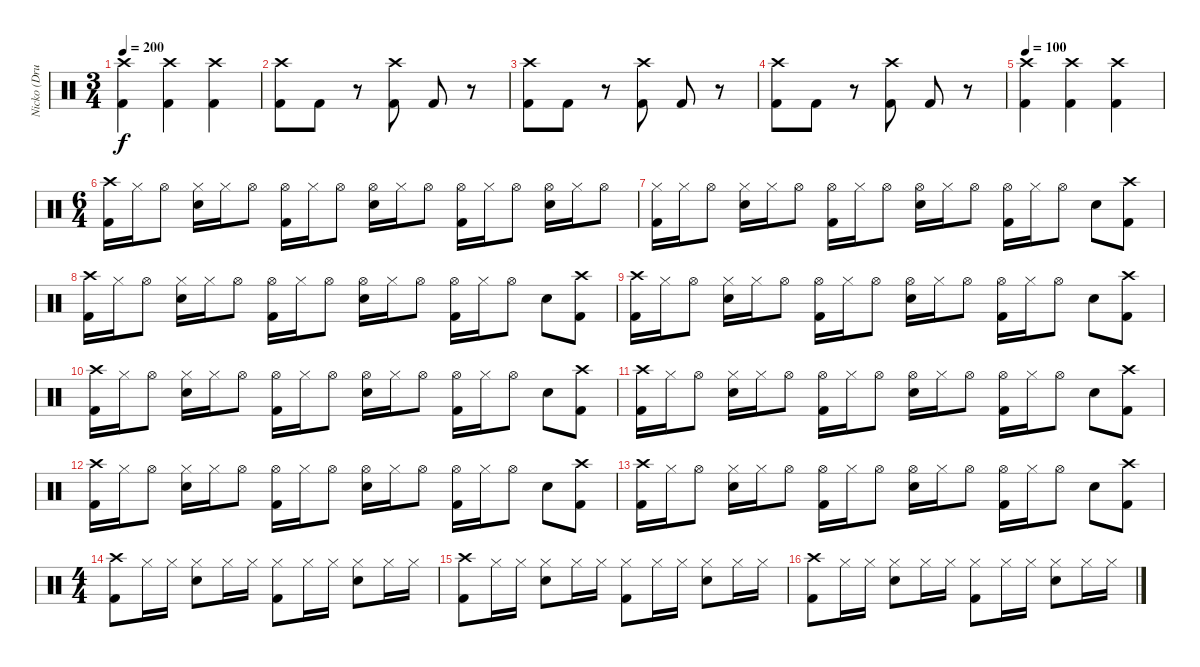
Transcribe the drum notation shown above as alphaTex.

\track ("Nicko (Drums)" "Nicko (Dru") {instrument percussion}
\staff {score}
\articulation defaults
\ts (3 4)
\tempo 200
\clef neutral
\ks c
("Crash high (hit)" "Kick (hit) 2").4{dy f} ("Crash high (hit)" "Kick (hit) 2").4 ("Crash high (hit)" "Kick (hit) 2").4 |
("Crash high (hit)" "Kick (hit) 2").8 "Kick (hit) 2".8 r.8 ("Crash high (hit)" "Kick (hit) 2").8 "Kick (hit) 2".8 r.8 |
("Crash high (hit)" "Kick (hit) 2").8 "Kick (hit) 2".8 r.8 ("Crash high (hit)" "Kick (hit) 2").8 "Kick (hit) 2".8 r.8 |
("Crash high (hit)" "Kick (hit) 2").8 "Kick (hit) 2".8 r.8 ("Crash high (hit)" "Kick (hit) 2").8 "Kick (hit) 2".8 r.8 |
\tempo 100
("Crash high (hit)" "Kick (hit) 2").4 ("Crash high (hit)" "Kick (hit) 2").4 ("Crash high (hit)" "Kick (hit) 2").4 |
\ts (6 4)
("Crash high (hit)" "Kick (hit) 2").16 "Hi-Hat (closed)".16 "Hi-Hat (open)".8 ("Hi-Hat (closed)" "Snare (hit) 2").16 "Hi-Hat (closed)".16 "Hi-Hat (open)".8 ("Hi-Hat (open)" "Kick (hit) 2").16 "Hi-Hat (closed)".16 "Hi-Hat (open)".8 ("Hi-Hat (open)" "Snare (hit) 2").16 "Hi-Hat (closed)".16 "Hi-Hat (open)".8 ("Hi-Hat (open)" "Kick (hit) 2").16 "Hi-Hat (closed)".16 "Hi-Hat (open)".8 ("Hi-Hat (open)" "Snare (hit) 2").16 "Hi-Hat (closed)".16 "Hi-Hat (open)".8 |
("Hi-Hat (closed)" "Kick (hit) 2").16 "Hi-Hat (closed)".16 "Hi-Hat (open)".8 ("Hi-Hat (closed)" "Snare (hit) 2").16 "Hi-Hat (closed)".16 "Hi-Hat (open)".8 ("Hi-Hat (open)" "Kick (hit) 2").16 "Hi-Hat (closed)".16 "Hi-Hat (open)".8 ("Hi-Hat (open)" "Snare (hit) 2").16 "Hi-Hat (closed)".16 "Hi-Hat (open)".8 ("Hi-Hat (open)" "Kick (hit) 2").16 "Hi-Hat (closed)".16 "Hi-Hat (open)".8 "Snare (hit) 2".8 ("Crash high (hit)" "Kick (hit) 2").8 |
("Crash high (hit)" "Kick (hit) 2").16 "Hi-Hat (closed)".16 "Hi-Hat (open)".8 ("Hi-Hat (closed)" "Snare (hit) 2").16 "Hi-Hat (closed)".16 "Hi-Hat (open)".8 ("Hi-Hat (open)" "Kick (hit) 2").16 "Hi-Hat (closed)".16 "Hi-Hat (open)".8 ("Hi-Hat (open)" "Snare (hit) 2").16 "Hi-Hat (closed)".16 "Hi-Hat (open)".8 ("Hi-Hat (open)" "Kick (hit) 2").16 "Hi-Hat (closed)".16 "Hi-Hat (open)".8 "Snare (hit) 2".8 ("Crash high (hit)" "Kick (hit) 2").8 |
("Crash high (hit)" "Kick (hit) 2").16 "Hi-Hat (closed)".16 "Hi-Hat (open)".8 ("Hi-Hat (closed)" "Snare (hit) 2").16 "Hi-Hat (closed)".16 "Hi-Hat (open)".8 ("Hi-Hat (open)" "Kick (hit) 2").16 "Hi-Hat (closed)".16 "Hi-Hat (open)".8 ("Hi-Hat (open)" "Snare (hit) 2").16 "Hi-Hat (closed)".16 "Hi-Hat (open)".8 ("Hi-Hat (open)" "Kick (hit) 2").16 "Hi-Hat (closed)".16 "Hi-Hat (open)".8 "Snare (hit) 2".8 ("Crash high (hit)" "Kick (hit) 2").8 |
("Crash high (hit)" "Kick (hit) 2").16 "Hi-Hat (closed)".16 "Hi-Hat (open)".8 ("Hi-Hat (closed)" "Snare (hit) 2").16 "Hi-Hat (closed)".16 "Hi-Hat (open)".8 ("Hi-Hat (open)" "Kick (hit) 2").16 "Hi-Hat (closed)".16 "Hi-Hat (open)".8 ("Hi-Hat (open)" "Snare (hit) 2").16 "Hi-Hat (closed)".16 "Hi-Hat (open)".8 ("Hi-Hat (open)" "Kick (hit) 2").16 "Hi-Hat (closed)".16 "Hi-Hat (open)".8 "Snare (hit) 2".8 ("Crash high (hit)" "Kick (hit) 2").8 |
("Crash high (hit)" "Kick (hit) 2").16 "Hi-Hat (closed)".16 "Hi-Hat (open)".8 ("Hi-Hat (closed)" "Snare (hit) 2").16 "Hi-Hat (closed)".16 "Hi-Hat (open)".8 ("Hi-Hat (open)" "Kick (hit) 2").16 "Hi-Hat (closed)".16 "Hi-Hat (open)".8 ("Hi-Hat (open)" "Snare (hit) 2").16 "Hi-Hat (closed)".16 "Hi-Hat (open)".8 ("Hi-Hat (open)" "Kick (hit) 2").16 "Hi-Hat (closed)".16 "Hi-Hat (open)".8 "Snare (hit) 2".8 ("Crash high (hit)" "Kick (hit) 2").8 |
("Crash high (hit)" "Kick (hit) 2").16 "Hi-Hat (closed)".16 "Hi-Hat (open)".8 ("Hi-Hat (closed)" "Snare (hit) 2").16 "Hi-Hat (closed)".16 "Hi-Hat (open)".8 ("Hi-Hat (open)" "Kick (hit) 2").16 "Hi-Hat (closed)".16 "Hi-Hat (open)".8 ("Hi-Hat (open)" "Snare (hit) 2").16 "Hi-Hat (closed)".16 "Hi-Hat (open)".8 ("Hi-Hat (open)" "Kick (hit) 2").16 "Hi-Hat (closed)".16 "Hi-Hat (open)".8 "Snare (hit) 2".8 ("Crash high (hit)" "Kick (hit) 2").8 |
("Crash high (hit)" "Kick (hit) 2").16 "Hi-Hat (closed)".16 "Hi-Hat (open)".8 ("Hi-Hat (closed)" "Snare (hit) 2").16 "Hi-Hat (closed)".16 "Hi-Hat (open)".8 ("Hi-Hat (open)" "Kick (hit) 2").16 "Hi-Hat (closed)".16 "Hi-Hat (open)".8 ("Hi-Hat (open)" "Snare (hit) 2").16 "Hi-Hat (closed)".16 "Hi-Hat (open)".8 ("Hi-Hat (open)" "Kick (hit) 2").16 "Hi-Hat (closed)".16 "Hi-Hat (open)".8 "Snare (hit) 2".8 ("Crash high (hit)" "Kick (hit) 2").8 |
\ts (4 4)
("Crash high (hit)" "Kick (hit) 2").8 "Hi-Hat (closed)".16 "Hi-Hat (closed)".16 ("Hi-Hat (closed)" "Snare (hit) 2").8 "Hi-Hat (closed)".16 "Hi-Hat (closed)".16 ("Hi-Hat (closed)" "Kick (hit) 2").8 "Hi-Hat (closed)".16 "Hi-Hat (closed)".16 ("Hi-Hat (closed)" "Snare (hit) 2").8 "Hi-Hat (closed)".16 "Hi-Hat (closed)".16 |
("Crash high (hit)" "Kick (hit) 2").8 "Hi-Hat (closed)".16 "Hi-Hat (closed)".16 ("Hi-Hat (closed)" "Snare (hit) 2").8 "Hi-Hat (closed)".16 "Hi-Hat (closed)".16 ("Hi-Hat (closed)" "Kick (hit) 2").8 "Hi-Hat (closed)".16 "Hi-Hat (closed)".16 ("Hi-Hat (closed)" "Snare (hit) 2").8 "Hi-Hat (closed)".16 "Hi-Hat (closed)".16 |
("Crash high (hit)" "Kick (hit) 2").8 "Hi-Hat (closed)".16 "Hi-Hat (closed)".16 ("Hi-Hat (closed)" "Snare (hit) 2").8 "Hi-Hat (closed)".16 "Hi-Hat (closed)".16 ("Hi-Hat (closed)" "Kick (hit) 2").8 "Hi-Hat (closed)".16 "Hi-Hat (closed)".16 ("Hi-Hat (closed)" "Snare (hit) 2").8 "Hi-Hat (closed)".16 "Hi-Hat (closed)".16
